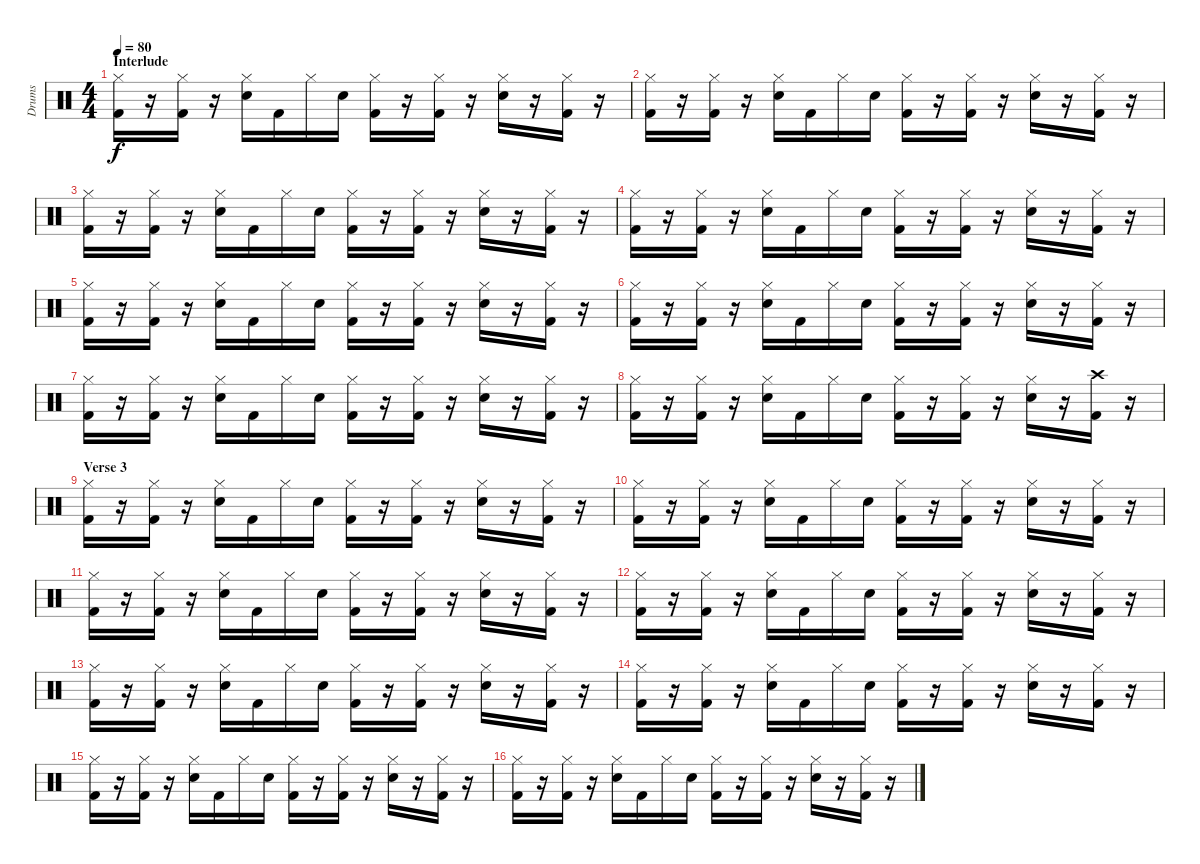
\track ("Drums" "Drums") {instrument percussion}
\staff {score}
\articulation defaults
\ts (4 4)
\section ("" "Interlude")
\tempo 80
\clef neutral
\ks c
("Kick (hit) 2" "Hi-Hat (closed)").16{dy f} r.16 ("Kick (hit) 2" "Hi-Hat (closed)").16 r.16 ("Snare (hit) 2" "Hi-Hat (closed)").16 "Kick (hit) 2".16 "Hi-Hat (closed)".16 "Snare (hit) 2".16 ("Kick (hit) 2" "Hi-Hat (closed)").16 r.16 ("Kick (hit) 2" "Hi-Hat (closed)").16 r.16 ("Snare (hit) 2" "Hi-Hat (closed)").16 r.16 ("Kick (hit) 2" "Hi-Hat (closed)").16 r.16 |
("Kick (hit) 2" "Hi-Hat (closed)").16 r.16 ("Kick (hit) 2" "Hi-Hat (closed)").16 r.16 ("Snare (hit) 2" "Hi-Hat (closed)").16 "Kick (hit) 2".16 "Hi-Hat (closed)".16 "Snare (hit) 2".16 ("Kick (hit) 2" "Hi-Hat (closed)").16 r.16 ("Kick (hit) 2" "Hi-Hat (closed)").16 r.16 ("Snare (hit) 2" "Hi-Hat (closed)").16 r.16 ("Kick (hit) 2" "Hi-Hat (closed)").16 r.16 |
("Kick (hit) 2" "Hi-Hat (closed)").16 r.16 ("Kick (hit) 2" "Hi-Hat (closed)").16 r.16 ("Snare (hit) 2" "Hi-Hat (closed)").16 "Kick (hit) 2".16 "Hi-Hat (closed)".16 "Snare (hit) 2".16 ("Kick (hit) 2" "Hi-Hat (closed)").16 r.16 ("Kick (hit) 2" "Hi-Hat (closed)").16 r.16 ("Snare (hit) 2" "Hi-Hat (closed)").16 r.16 ("Kick (hit) 2" "Hi-Hat (closed)").16 r.16 |
("Kick (hit) 2" "Hi-Hat (closed)").16 r.16 ("Kick (hit) 2" "Hi-Hat (closed)").16 r.16 ("Snare (hit) 2" "Hi-Hat (closed)").16 "Kick (hit) 2".16 "Hi-Hat (closed)".16 "Snare (hit) 2".16 ("Kick (hit) 2" "Hi-Hat (closed)").16 r.16 ("Kick (hit) 2" "Hi-Hat (closed)").16 r.16 ("Snare (hit) 2" "Hi-Hat (closed)").16 r.16 ("Kick (hit) 2" "Hi-Hat (closed)").16 r.16 |
("Kick (hit) 2" "Hi-Hat (closed)").16 r.16 ("Kick (hit) 2" "Hi-Hat (closed)").16 r.16 ("Snare (hit) 2" "Hi-Hat (closed)").16 "Kick (hit) 2".16 "Hi-Hat (closed)".16 "Snare (hit) 2".16 ("Kick (hit) 2" "Hi-Hat (closed)").16 r.16 ("Kick (hit) 2" "Hi-Hat (closed)").16 r.16 ("Snare (hit) 2" "Hi-Hat (closed)").16 r.16 ("Kick (hit) 2" "Hi-Hat (closed)").16 r.16 |
("Kick (hit) 2" "Hi-Hat (closed)").16 r.16 ("Kick (hit) 2" "Hi-Hat (closed)").16 r.16 ("Snare (hit) 2" "Hi-Hat (closed)").16 "Kick (hit) 2".16 "Hi-Hat (closed)".16 "Snare (hit) 2".16 ("Kick (hit) 2" "Hi-Hat (closed)").16 r.16 ("Kick (hit) 2" "Hi-Hat (closed)").16 r.16 ("Snare (hit) 2" "Hi-Hat (closed)").16 r.16 ("Kick (hit) 2" "Hi-Hat (closed)").16 r.16 |
("Kick (hit) 2" "Hi-Hat (closed)").16 r.16 ("Kick (hit) 2" "Hi-Hat (closed)").16 r.16 ("Snare (hit) 2" "Hi-Hat (closed)").16 "Kick (hit) 2".16 "Hi-Hat (closed)".16 "Snare (hit) 2".16 ("Kick (hit) 2" "Hi-Hat (closed)").16 r.16 ("Kick (hit) 2" "Hi-Hat (closed)").16 r.16 ("Snare (hit) 2" "Hi-Hat (closed)").16 r.16 ("Kick (hit) 2" "Hi-Hat (closed)").16 r.16 |
("Kick (hit) 2" "Hi-Hat (closed)").16 r.16 ("Kick (hit) 2" "Hi-Hat (closed)").16 r.16 ("Snare (hit) 2" "Hi-Hat (closed)").16 "Kick (hit) 2".16 "Hi-Hat (closed)".16 "Snare (hit) 2".16 ("Kick (hit) 2" "Hi-Hat (closed)").16 r.16 ("Kick (hit) 2" "Hi-Hat (closed)").16 r.16 ("Snare (hit) 2" "Hi-Hat (closed)").16 r.16 ("Kick (hit) 2" "Crash high (hit)").16 r.16 |
\section ("" "Verse 3")
("Kick (hit) 2" "Hi-Hat (closed)").16 r.16 ("Kick (hit) 2" "Hi-Hat (closed)").16 r.16 ("Snare (hit) 2" "Hi-Hat (closed)").16 "Kick (hit) 2".16 "Hi-Hat (closed)".16 "Snare (hit) 2".16 ("Kick (hit) 2" "Hi-Hat (closed)").16 r.16 ("Kick (hit) 2" "Hi-Hat (closed)").16 r.16 ("Snare (hit) 2" "Hi-Hat (closed)").16 r.16 ("Kick (hit) 2" "Hi-Hat (closed)").16 r.16 |
("Kick (hit) 2" "Hi-Hat (closed)").16 r.16 ("Kick (hit) 2" "Hi-Hat (closed)").16 r.16 ("Snare (hit) 2" "Hi-Hat (closed)").16 "Kick (hit) 2".16 "Hi-Hat (closed)".16 "Snare (hit) 2".16 ("Kick (hit) 2" "Hi-Hat (closed)").16 r.16 ("Kick (hit) 2" "Hi-Hat (closed)").16 r.16 ("Snare (hit) 2" "Hi-Hat (closed)").16 r.16 ("Kick (hit) 2" "Hi-Hat (closed)").16 r.16 |
("Kick (hit) 2" "Hi-Hat (closed)").16 r.16 ("Kick (hit) 2" "Hi-Hat (closed)").16 r.16 ("Snare (hit) 2" "Hi-Hat (closed)").16 "Kick (hit) 2".16 "Hi-Hat (closed)".16 "Snare (hit) 2".16 ("Kick (hit) 2" "Hi-Hat (closed)").16 r.16 ("Kick (hit) 2" "Hi-Hat (closed)").16 r.16 ("Snare (hit) 2" "Hi-Hat (closed)").16 r.16 ("Kick (hit) 2" "Hi-Hat (closed)").16 r.16 |
("Kick (hit) 2" "Hi-Hat (closed)").16 r.16 ("Kick (hit) 2" "Hi-Hat (closed)").16 r.16 ("Snare (hit) 2" "Hi-Hat (closed)").16 "Kick (hit) 2".16 "Hi-Hat (closed)".16 "Snare (hit) 2".16 ("Kick (hit) 2" "Hi-Hat (closed)").16 r.16 ("Kick (hit) 2" "Hi-Hat (closed)").16 r.16 ("Snare (hit) 2" "Hi-Hat (closed)").16 r.16 ("Kick (hit) 2" "Hi-Hat (closed)").16 r.16 |
("Kick (hit) 2" "Hi-Hat (closed)").16 r.16 ("Kick (hit) 2" "Hi-Hat (closed)").16 r.16 ("Snare (hit) 2" "Hi-Hat (closed)").16 "Kick (hit) 2".16 "Hi-Hat (closed)".16 "Snare (hit) 2".16 ("Kick (hit) 2" "Hi-Hat (closed)").16 r.16 ("Kick (hit) 2" "Hi-Hat (closed)").16 r.16 ("Snare (hit) 2" "Hi-Hat (closed)").16 r.16 ("Kick (hit) 2" "Hi-Hat (closed)").16 r.16 |
("Kick (hit) 2" "Hi-Hat (closed)").16 r.16 ("Kick (hit) 2" "Hi-Hat (closed)").16 r.16 ("Snare (hit) 2" "Hi-Hat (closed)").16 "Kick (hit) 2".16 "Hi-Hat (closed)".16 "Snare (hit) 2".16 ("Kick (hit) 2" "Hi-Hat (closed)").16 r.16 ("Kick (hit) 2" "Hi-Hat (closed)").16 r.16 ("Snare (hit) 2" "Hi-Hat (closed)").16 r.16 ("Kick (hit) 2" "Hi-Hat (closed)").16 r.16 |
("Kick (hit) 2" "Hi-Hat (closed)").16 r.16 ("Kick (hit) 2" "Hi-Hat (closed)").16 r.16 ("Snare (hit) 2" "Hi-Hat (closed)").16 "Kick (hit) 2".16 "Hi-Hat (closed)".16 "Snare (hit) 2".16 ("Kick (hit) 2" "Hi-Hat (closed)").16 r.16 ("Kick (hit) 2" "Hi-Hat (closed)").16 r.16 ("Snare (hit) 2" "Hi-Hat (closed)").16 r.16 ("Kick (hit) 2" "Hi-Hat (closed)").16 r.16 |
("Kick (hit) 2" "Hi-Hat (closed)").16 r.16 ("Kick (hit) 2" "Hi-Hat (closed)").16 r.16 ("Snare (hit) 2" "Hi-Hat (closed)").16 "Kick (hit) 2".16 "Hi-Hat (closed)".16 "Snare (hit) 2".16 ("Kick (hit) 2" "Hi-Hat (closed)").16 r.16 ("Kick (hit) 2" "Hi-Hat (closed)").16 r.16 ("Snare (hit) 2" "Hi-Hat (closed)").16 r.16 ("Kick (hit) 2" "Hi-Hat (closed)").16 r.16
